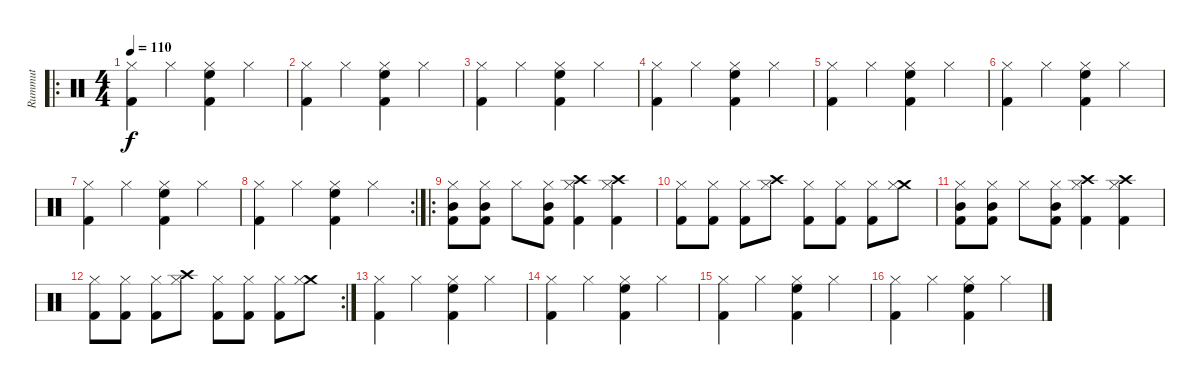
\track ("Rummut" "Rummut") {instrument percussion}
\staff {score}
\articulation defaults
\ro
\ts (4 4)
\tempo 110
\clef neutral
\ks c
("Hi-Hat (closed)" "Kick (hit) 2").4{dy f} "Hi-Hat (closed)".4 ("Hi-Hat (closed)" "High Floor Tom (hit)" "Kick (hit) 2").4 "Hi-Hat (closed)".4 |
("Hi-Hat (closed)" "Kick (hit) 2").4 "Hi-Hat (closed)".4 ("Hi-Hat (closed)" "High Floor Tom (hit)" "Kick (hit) 2").4 "Hi-Hat (closed)".4 |
("Hi-Hat (closed)" "Kick (hit) 2").4 "Hi-Hat (closed)".4 ("Hi-Hat (closed)" "High Floor Tom (hit)" "Kick (hit) 2").4 "Hi-Hat (closed)".4 |
("Hi-Hat (closed)" "Kick (hit) 2").4 "Hi-Hat (closed)".4 ("Hi-Hat (closed)" "High Floor Tom (hit)" "Kick (hit) 2").4 "Hi-Hat (closed)".4 |
("Hi-Hat (closed)" "Kick (hit) 2").4 "Hi-Hat (closed)".4 ("Hi-Hat (closed)" "High Floor Tom (hit)" "Kick (hit) 2").4 "Hi-Hat (closed)".4 |
("Hi-Hat (closed)" "Kick (hit) 2").4 "Hi-Hat (closed)".4 ("Hi-Hat (closed)" "High Floor Tom (hit)" "Kick (hit) 2").4 "Hi-Hat (closed)".4 |
("Hi-Hat (closed)" "Kick (hit) 2").4 "Hi-Hat (closed)".4 ("Hi-Hat (closed)" "High Floor Tom (hit)" "Kick (hit) 2").4 "Hi-Hat (closed)".4 |
\rc 2
("Hi-Hat (closed)" "Kick (hit) 2").4 "Hi-Hat (closed)".4 ("Hi-Hat (closed)" "High Floor Tom (hit)" "Kick (hit) 2").4 "Hi-Hat (closed)".4 |
\ro
("Hi-Hat (closed)" "Mid Tom (hit)" "Kick (hit) 2").8 ("Hi-Hat (closed)" "Mid Tom (hit)" "Kick (hit) 2").8 "Hi-Hat (closed)".8 ("Hi-Hat (closed)" "Mid Tom (hit)" "Kick (hit) 2").8 ("Crash high (hit)" "Hi-Hat (closed)" "Kick (hit) 2").4 ("Crash high (hit)" "Hi-Hat (closed)" "Kick (hit) 2").4 |
("Hi-Hat (closed)" "Kick (hit) 2").8 ("Hi-Hat (closed)" "Kick (hit) 2").8 ("Hi-Hat (closed)" "Kick (hit) 2").8 ("Crash high (hit)" "Hi-Hat (closed)").8 ("Hi-Hat (closed)" "Kick (hit) 2").8 ("Hi-Hat (closed)" "Kick (hit) 2").8 ("Hi-Hat (closed)" "Kick (hit) 2").8 ("Crash medium (hit)" "Hi-Hat (closed)").8 |
("Hi-Hat (closed)" "Mid Tom (hit)" "Kick (hit) 2").8 ("Hi-Hat (closed)" "Mid Tom (hit)" "Kick (hit) 2").8 "Hi-Hat (closed)".8 ("Hi-Hat (closed)" "Mid Tom (hit)" "Kick (hit) 2").8 ("Crash high (hit)" "Hi-Hat (closed)" "Kick (hit) 2").4 ("Crash high (hit)" "Hi-Hat (closed)" "Kick (hit) 2").4 |
\rc 2
("Hi-Hat (closed)" "Kick (hit) 2").8 ("Hi-Hat (closed)" "Kick (hit) 2").8 ("Hi-Hat (closed)" "Kick (hit) 2").8 ("Crash high (hit)" "Hi-Hat (closed)").8 ("Hi-Hat (closed)" "Kick (hit) 2").8 ("Hi-Hat (closed)" "Kick (hit) 2").8 ("Hi-Hat (closed)" "Kick (hit) 2").8 ("Crash medium (hit)" "Hi-Hat (closed)").8 |
("Hi-Hat (closed)" "Kick (hit) 2").4 "Hi-Hat (closed)".4 ("Hi-Hat (closed)" "High Floor Tom (hit)" "Kick (hit) 2").4 "Hi-Hat (closed)".4 |
("Hi-Hat (closed)" "Kick (hit) 2").4 "Hi-Hat (closed)".4 ("Hi-Hat (closed)" "High Floor Tom (hit)" "Kick (hit) 2").4 "Hi-Hat (closed)".4 |
("Hi-Hat (closed)" "Kick (hit) 2").4 "Hi-Hat (closed)".4 ("Hi-Hat (closed)" "High Floor Tom (hit)" "Kick (hit) 2").4 "Hi-Hat (closed)".4 |
("Hi-Hat (closed)" "Kick (hit) 2").4 "Hi-Hat (closed)".4 ("Hi-Hat (closed)" "High Floor Tom (hit)" "Kick (hit) 2").4 "Hi-Hat (closed)".4
